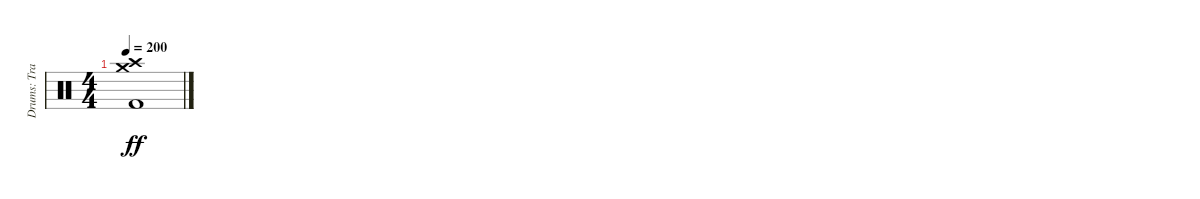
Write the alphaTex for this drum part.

\track ("Drums: Travis Clarke" "Drums: Tra") {instrument percussion}
\staff {score}
\articulation defaults
\ts (4 4)
\tempo 200
\clef neutral
\ks c
("Kick (hit) 2" "Crash high (hit)" "Crash medium (hit)").1{dy ff}
